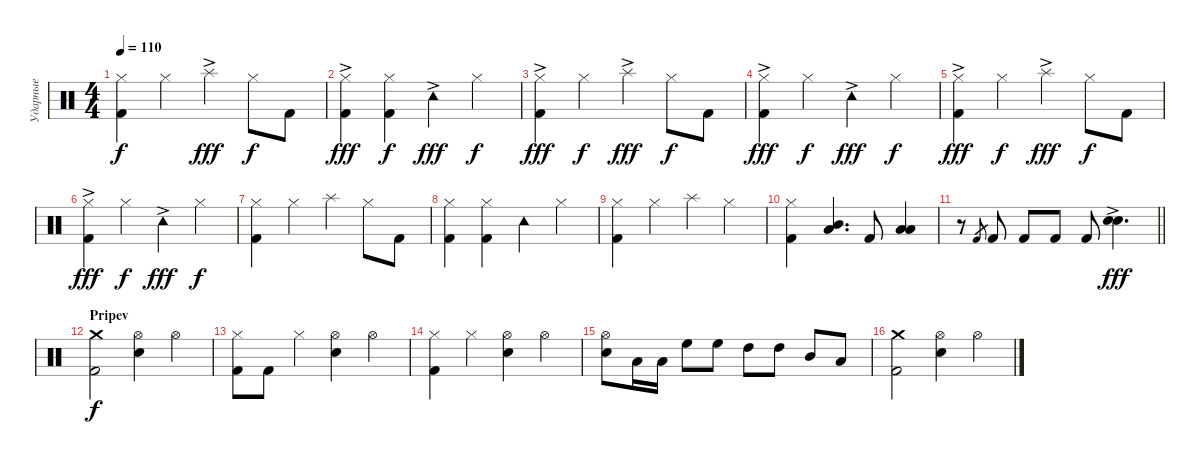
\track ("Ударные" "Ударные") {instrument percussion}
\staff {score}
\articulation defaults
\ts (4 4)
\tempo 110
\clef neutral
\ks c
("Kick (hit) 2" "Hi-Hat (closed)").4{dy f} "Hi-Hat (closed)".4 "Splash (hit)"{ac}.4{dy fff} "Hi-Hat (closed)".8{dy f} "Kick (hit) 2".8 |
("Hi-Hat (closed)"{ac} "Kick (hit) 2").4{dy fff} ("Hi-Hat (closed)" "Kick (hit) 2").4{dy f} "Tambourine (hit)"{ac}.4{dy fff} "Hi-Hat (closed)".4{dy f} |
("Hi-Hat (closed)"{ac} "Kick (hit) 2").4{dy fff} "Hi-Hat (closed)".4{dy f} "Splash (hit)"{ac}.4{dy fff} "Hi-Hat (closed)".8{dy f} "Kick (hit) 2".8 |
("Hi-Hat (closed)" "Kick (hit) 2"{ac}).4{dy fff} "Hi-Hat (closed)".4{dy f} "Tambourine (hit)"{ac}.4{dy fff} "Hi-Hat (closed)".4{dy f} |
("Kick (hit) 2" "Hi-Hat (closed)"{ac}).4{dy fff} "Hi-Hat (closed)".4{dy f} "Splash (hit)"{ac}.4{dy fff} "Hi-Hat (closed)".8{dy f} "Kick (hit) 2".8 |
("Hi-Hat (closed)"{ac} "Kick (hit) 2").4{dy fff} "Hi-Hat (closed)".4{dy f} "Tambourine (hit)"{ac}.4{dy fff} "Hi-Hat (closed)".4{dy f} |
("Kick (hit) 2" "Hi-Hat (closed)").4 "Hi-Hat (closed)".4 "Splash (hit)".4 "Hi-Hat (closed)".8 "Kick (hit) 2".8 |
("Kick (hit) 2" "Hi-Hat (closed)").4 ("Kick (hit) 2" "Hi-Hat (closed)").4 "Tambourine (hit)".4 "Hi-Hat (closed)".4 |
("Hi-Hat (closed)" "Kick (hit) 2").4 "Hi-Hat (closed)".4 "Splash (hit)".4 "Hi-Hat (closed)".4 |
("Hi-Hat (closed)" "Kick (hit) 2").4 ("Mid Tom (hit)" "Low Tom (hit)").4{d} "Kick (hit) 2".8 ("Low Floor Tom (hit)" "Low Tom (hit)").4 |
\barLineRight lightlight
r.8 "Kick (hit) 2".8{gr} "Kick (hit) 2".8 "Kick (hit) 2".8 "Kick (hit) 2".8 "Kick (hit) 2".8 ("Snare (hit) 2" "Snare (hit) 2"{ac}).4{d dy fff} |
\section ("" "Pripev")
("Crash medium (hit)" "Kick (hit) 2").2{dy f} ("Hi-Hat (open)" "Snare (hit) 2").4 "Hi-Hat (open)".4 |
("Hi-Hat (closed)" "Kick (hit) 2").8 "Kick (hit) 2".8 "Hi-Hat (closed)".4 ("Hi-Hat (open)" "Snare (hit) 2").4 "Hi-Hat (open)".4 |
("Hi-Hat (closed)" "Kick (hit) 2").4 "Hi-Hat (closed)".4 ("Hi-Hat (open)" "Snare (hit) 2").4 "Hi-Hat (open)".4 |
("Hi-Hat (open)" "Snare (hit) 2").8 "Low Tom (hit)".16 "Low Tom (hit)".16 "High Floor Tom (hit)".8 "High Floor Tom (hit)".8 "High Tom (hit)".8 "High Tom (hit)".8 "Mid Tom (hit)".8 "Low Tom (hit)".8 |
("Crash medium (hit)" "Kick (hit) 2").2 ("Hi-Hat (open)" "Snare (hit) 2").4 "Hi-Hat (open)".4
